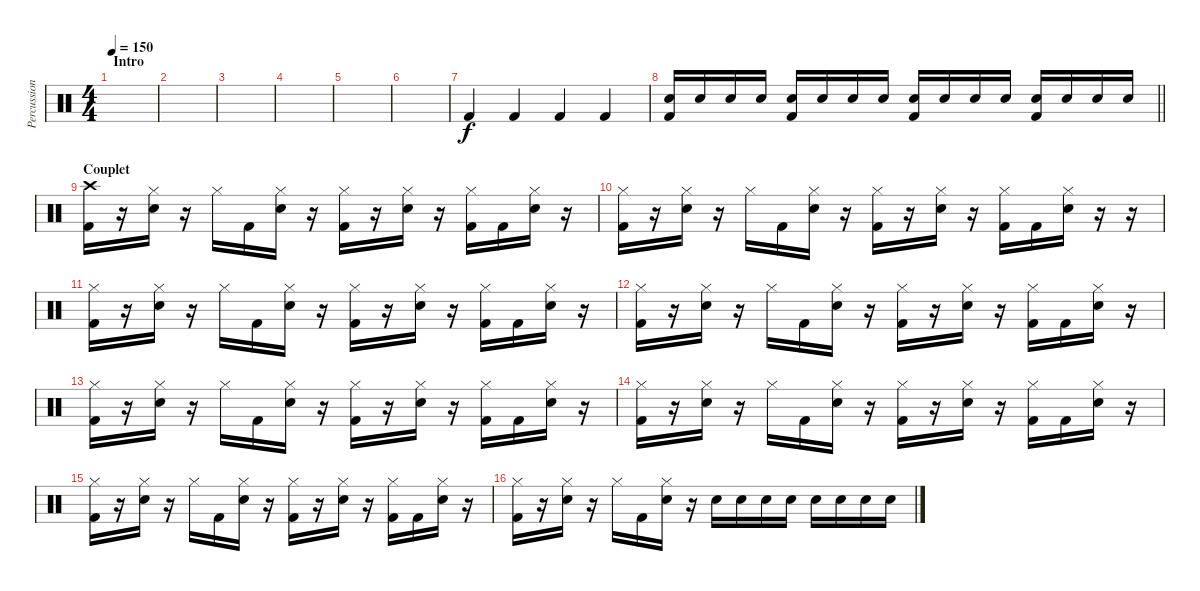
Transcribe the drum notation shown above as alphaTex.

\track ("Percussion" "Percussion") {instrument percussion}
\staff {score}
\articulation defaults
\ts (4 4)
\section ("" "Intro")
\tempo 150
\clef neutral
\ks c
|
|
|
|
|
|
"Kick (hit) 2".4 "Kick (hit) 2".4 "Kick (hit) 2".4 "Kick (hit) 2".4 |
\barLineRight lightlight
("Electric Snare (hit)" "Kick (hit) 2").16{dy f} "Electric Snare (hit)".16 "Electric Snare (hit)".16 "Electric Snare (hit)".16 ("Electric Snare (hit)" "Kick (hit) 2").16 "Electric Snare (hit)".16 "Electric Snare (hit)".16 "Electric Snare (hit)".16 ("Electric Snare (hit)" "Kick (hit) 2").16 "Electric Snare (hit)".16 "Electric Snare (hit)".16 "Electric Snare (hit)".16 ("Electric Snare (hit)" "Kick (hit) 2").16 "Electric Snare (hit)".16 "Electric Snare (hit)".16 "Electric Snare (hit)".16 |
\section ("" "Couplet")
("Crash high (hit)" "Kick (hit) 2").16 r.16 ("Hi-Hat (closed)" "Electric Snare (hit)").16 r.16 "Hi-Hat (closed)".16 "Kick (hit) 2".16 ("Hi-Hat (closed)" "Electric Snare (hit)").16 r.16 ("Hi-Hat (closed)" "Kick (hit) 2").16 r.16 ("Hi-Hat (closed)" "Electric Snare (hit)").16 r.16 ("Hi-Hat (closed)" "Kick (hit) 2").16 "Kick (hit) 2".16 ("Hi-Hat (closed)" "Electric Snare (hit)").16 r.16 |
("Hi-Hat (closed)" "Kick (hit) 2").16 r.16 ("Hi-Hat (closed)" "Electric Snare (hit)").16 r.16 "Hi-Hat (closed)".16 "Kick (hit) 2".16 ("Hi-Hat (closed)" "Electric Snare (hit)").16 r.16 ("Hi-Hat (closed)" "Kick (hit) 2").16 r.16 ("Hi-Hat (closed)" "Electric Snare (hit)").16 r.16 ("Hi-Hat (closed)" "Kick (hit) 2").16 "Kick (hit) 2".16 ("Hi-Hat (closed)" "Electric Snare (hit)").16 r.16 r.16 |
("Hi-Hat (closed)" "Kick (hit) 2").16 r.16 ("Hi-Hat (closed)" "Electric Snare (hit)").16 r.16 "Hi-Hat (closed)".16 "Kick (hit) 2".16 ("Hi-Hat (closed)" "Electric Snare (hit)").16 r.16 ("Hi-Hat (closed)" "Kick (hit) 2").16 r.16 ("Hi-Hat (closed)" "Electric Snare (hit)").16 r.16 ("Hi-Hat (closed)" "Kick (hit) 2").16 "Kick (hit) 2".16 ("Hi-Hat (closed)" "Electric Snare (hit)").16 r.16 |
("Hi-Hat (closed)" "Kick (hit) 2").16 r.16 ("Hi-Hat (closed)" "Electric Snare (hit)").16 r.16 "Hi-Hat (closed)".16 "Kick (hit) 2".16 ("Hi-Hat (closed)" "Electric Snare (hit)").16 r.16 ("Hi-Hat (closed)" "Kick (hit) 2").16 r.16 ("Hi-Hat (closed)" "Electric Snare (hit)").16 r.16 ("Hi-Hat (closed)" "Kick (hit) 2").16 "Kick (hit) 2".16 ("Hi-Hat (closed)" "Electric Snare (hit)").16 r.16 |
("Hi-Hat (closed)" "Kick (hit) 2").16 r.16 ("Hi-Hat (closed)" "Electric Snare (hit)").16 r.16 "Hi-Hat (closed)".16 "Kick (hit) 2".16 ("Hi-Hat (closed)" "Electric Snare (hit)").16 r.16 ("Hi-Hat (closed)" "Kick (hit) 2").16 r.16 ("Hi-Hat (closed)" "Electric Snare (hit)").16 r.16 ("Hi-Hat (closed)" "Kick (hit) 2").16 "Kick (hit) 2".16 ("Hi-Hat (closed)" "Electric Snare (hit)").16 r.16 |
("Hi-Hat (closed)" "Kick (hit) 2").16 r.16 ("Hi-Hat (closed)" "Electric Snare (hit)").16 r.16 "Hi-Hat (closed)".16 "Kick (hit) 2".16 ("Hi-Hat (closed)" "Electric Snare (hit)").16 r.16 ("Hi-Hat (closed)" "Kick (hit) 2").16 r.16 ("Hi-Hat (closed)" "Electric Snare (hit)").16 r.16 ("Hi-Hat (closed)" "Kick (hit) 2").16 "Kick (hit) 2".16 ("Hi-Hat (closed)" "Electric Snare (hit)").16 r.16 |
("Hi-Hat (closed)" "Kick (hit) 2").16 r.16 ("Hi-Hat (closed)" "Electric Snare (hit)").16 r.16 "Hi-Hat (closed)".16 "Kick (hit) 2".16 ("Hi-Hat (closed)" "Electric Snare (hit)").16 r.16 ("Hi-Hat (closed)" "Kick (hit) 2").16 r.16 ("Hi-Hat (closed)" "Electric Snare (hit)").16 r.16 ("Hi-Hat (closed)" "Kick (hit) 2").16 "Kick (hit) 2".16 ("Hi-Hat (closed)" "Electric Snare (hit)").16 r.16 |
("Hi-Hat (closed)" "Kick (hit) 2").16 r.16 ("Hi-Hat (closed)" "Electric Snare (hit)").16 r.16 "Hi-Hat (closed)".16 "Kick (hit) 2".16 ("Hi-Hat (closed)" "Electric Snare (hit)").16 r.16 "Electric Snare (hit)".16 "Electric Snare (hit)".16 "Electric Snare (hit)".16 "Electric Snare (hit)".16 "Electric Snare (hit)".16 "Electric Snare (hit)".16 "Electric Snare (hit)".16 "Electric Snare (hit)".16
